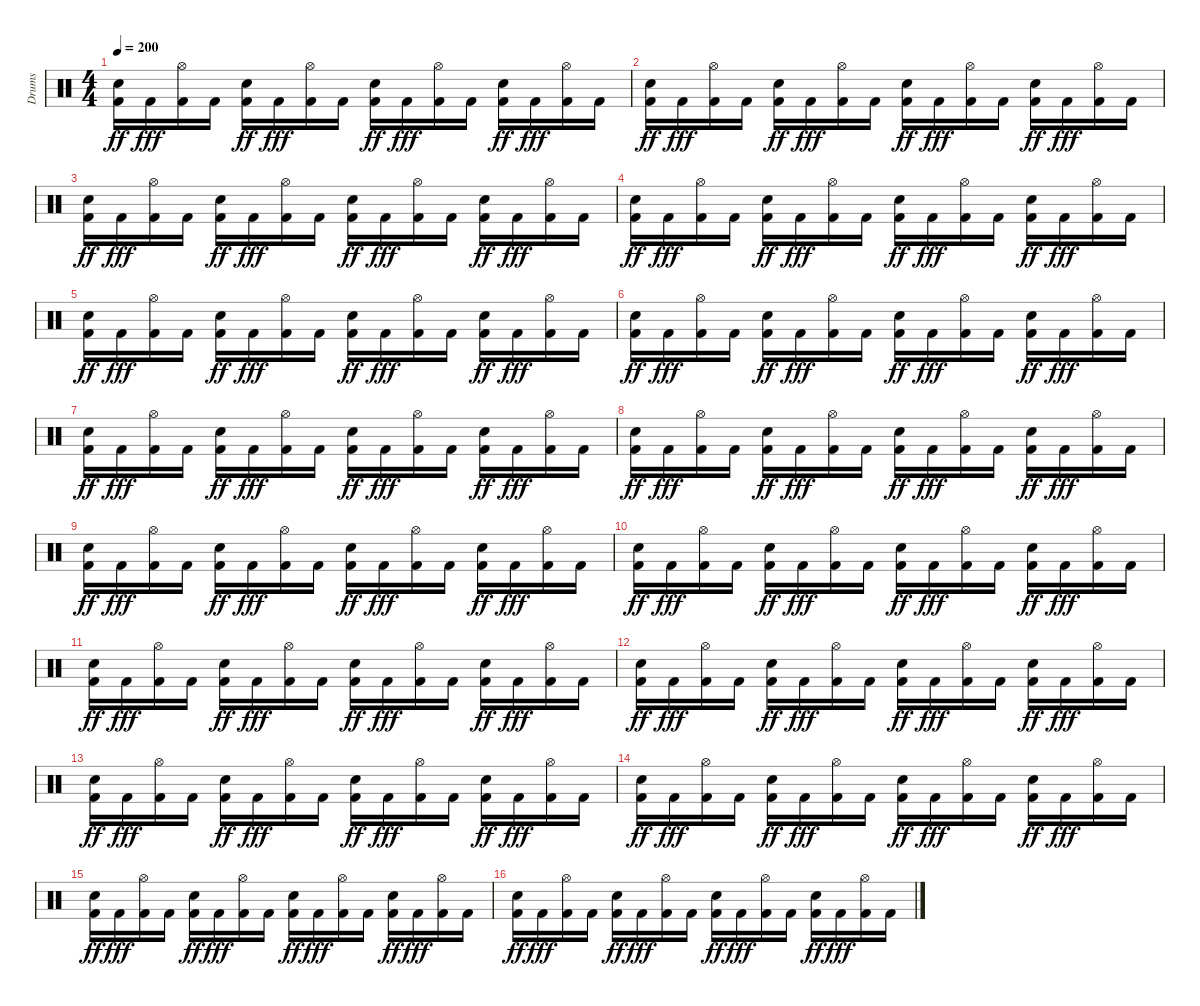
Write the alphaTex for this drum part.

\track ("Drums" "Drums") {instrument percussion}
\staff {score}
\articulation defaults
\ts (4 4)
\tempo 200
\clef neutral
\ks c
("Kick (hit) 2" "Electric Snare (hit)").16{dy ff} "Kick (hit) 2".16{dy fff} ("Kick (hit) 2" "Hi-Hat (open)").16 "Kick (hit) 2".16 ("Kick (hit) 2" "Electric Snare (hit)").16{dy ff} "Kick (hit) 2".16{dy fff} ("Kick (hit) 2" "Hi-Hat (open)").16 "Kick (hit) 2".16 ("Kick (hit) 2" "Electric Snare (hit)").16{dy ff} "Kick (hit) 2".16{dy fff} ("Kick (hit) 2" "Hi-Hat (open)").16 "Kick (hit) 2".16 ("Kick (hit) 2" "Electric Snare (hit)").16{dy ff} "Kick (hit) 2".16{dy fff} ("Kick (hit) 2" "Hi-Hat (open)").16 "Kick (hit) 2".16 |
("Kick (hit) 2" "Electric Snare (hit)").16{dy ff} "Kick (hit) 2".16{dy fff} ("Kick (hit) 2" "Hi-Hat (open)").16 "Kick (hit) 2".16 ("Kick (hit) 2" "Electric Snare (hit)").16{dy ff} "Kick (hit) 2".16{dy fff} ("Kick (hit) 2" "Hi-Hat (open)").16 "Kick (hit) 2".16 ("Kick (hit) 2" "Electric Snare (hit)").16{dy ff} "Kick (hit) 2".16{dy fff} ("Kick (hit) 2" "Hi-Hat (open)").16 "Kick (hit) 2".16 ("Kick (hit) 2" "Electric Snare (hit)").16{dy ff} "Kick (hit) 2".16{dy fff} ("Kick (hit) 2" "Hi-Hat (open)").16 "Kick (hit) 2".16 |
("Kick (hit) 2" "Electric Snare (hit)").16{dy ff} "Kick (hit) 2".16{dy fff} ("Kick (hit) 2" "Hi-Hat (open)").16 "Kick (hit) 2".16 ("Kick (hit) 2" "Electric Snare (hit)").16{dy ff} "Kick (hit) 2".16{dy fff} ("Kick (hit) 2" "Hi-Hat (open)").16 "Kick (hit) 2".16 ("Kick (hit) 2" "Electric Snare (hit)").16{dy ff} "Kick (hit) 2".16{dy fff} ("Kick (hit) 2" "Hi-Hat (open)").16 "Kick (hit) 2".16 ("Kick (hit) 2" "Electric Snare (hit)").16{dy ff} "Kick (hit) 2".16{dy fff} ("Kick (hit) 2" "Hi-Hat (open)").16 "Kick (hit) 2".16 |
("Kick (hit) 2" "Electric Snare (hit)").16{dy ff} "Kick (hit) 2".16{dy fff} ("Kick (hit) 2" "Hi-Hat (open)").16 "Kick (hit) 2".16 ("Kick (hit) 2" "Electric Snare (hit)").16{dy ff} "Kick (hit) 2".16{dy fff} ("Kick (hit) 2" "Hi-Hat (open)").16 "Kick (hit) 2".16 ("Kick (hit) 2" "Electric Snare (hit)").16{dy ff} "Kick (hit) 2".16{dy fff} ("Kick (hit) 2" "Hi-Hat (open)").16 "Kick (hit) 2".16 ("Kick (hit) 2" "Electric Snare (hit)").16{dy ff} "Kick (hit) 2".16{dy fff} ("Kick (hit) 2" "Hi-Hat (open)").16 "Kick (hit) 2".16 |
("Kick (hit) 2" "Electric Snare (hit)").16{dy ff} "Kick (hit) 2".16{dy fff} ("Kick (hit) 2" "Hi-Hat (open)").16 "Kick (hit) 2".16 ("Kick (hit) 2" "Electric Snare (hit)").16{dy ff} "Kick (hit) 2".16{dy fff} ("Kick (hit) 2" "Hi-Hat (open)").16 "Kick (hit) 2".16 ("Kick (hit) 2" "Electric Snare (hit)").16{dy ff} "Kick (hit) 2".16{dy fff} ("Kick (hit) 2" "Hi-Hat (open)").16 "Kick (hit) 2".16 ("Kick (hit) 2" "Electric Snare (hit)").16{dy ff} "Kick (hit) 2".16{dy fff} ("Kick (hit) 2" "Hi-Hat (open)").16 "Kick (hit) 2".16 |
("Kick (hit) 2" "Electric Snare (hit)").16{dy ff} "Kick (hit) 2".16{dy fff} ("Kick (hit) 2" "Hi-Hat (open)").16 "Kick (hit) 2".16 ("Kick (hit) 2" "Electric Snare (hit)").16{dy ff} "Kick (hit) 2".16{dy fff} ("Kick (hit) 2" "Hi-Hat (open)").16 "Kick (hit) 2".16 ("Kick (hit) 2" "Electric Snare (hit)").16{dy ff} "Kick (hit) 2".16{dy fff} ("Kick (hit) 2" "Hi-Hat (open)").16 "Kick (hit) 2".16 ("Kick (hit) 2" "Electric Snare (hit)").16{dy ff} "Kick (hit) 2".16{dy fff} ("Kick (hit) 2" "Hi-Hat (open)").16 "Kick (hit) 2".16 |
("Kick (hit) 2" "Electric Snare (hit)").16{dy ff} "Kick (hit) 2".16{dy fff} ("Kick (hit) 2" "Hi-Hat (open)").16 "Kick (hit) 2".16 ("Kick (hit) 2" "Electric Snare (hit)").16{dy ff} "Kick (hit) 2".16{dy fff} ("Kick (hit) 2" "Hi-Hat (open)").16 "Kick (hit) 2".16 ("Kick (hit) 2" "Electric Snare (hit)").16{dy ff} "Kick (hit) 2".16{dy fff} ("Kick (hit) 2" "Hi-Hat (open)").16 "Kick (hit) 2".16 ("Kick (hit) 2" "Electric Snare (hit)").16{dy ff} "Kick (hit) 2".16{dy fff} ("Kick (hit) 2" "Hi-Hat (open)").16 "Kick (hit) 2".16 |
("Kick (hit) 2" "Electric Snare (hit)").16{dy ff} "Kick (hit) 2".16{dy fff} ("Kick (hit) 2" "Hi-Hat (open)").16 "Kick (hit) 2".16 ("Kick (hit) 2" "Electric Snare (hit)").16{dy ff} "Kick (hit) 2".16{dy fff} ("Kick (hit) 2" "Hi-Hat (open)").16 "Kick (hit) 2".16 ("Kick (hit) 2" "Electric Snare (hit)").16{dy ff} "Kick (hit) 2".16{dy fff} ("Kick (hit) 2" "Hi-Hat (open)").16 "Kick (hit) 2".16 ("Kick (hit) 2" "Electric Snare (hit)").16{dy ff} "Kick (hit) 2".16{dy fff} ("Kick (hit) 2" "Hi-Hat (open)").16 "Kick (hit) 2".16 |
("Kick (hit) 2" "Electric Snare (hit)").16{dy ff} "Kick (hit) 2".16{dy fff} ("Kick (hit) 2" "Hi-Hat (open)").16 "Kick (hit) 2".16 ("Kick (hit) 2" "Electric Snare (hit)").16{dy ff} "Kick (hit) 2".16{dy fff} ("Kick (hit) 2" "Hi-Hat (open)").16 "Kick (hit) 2".16 ("Kick (hit) 2" "Electric Snare (hit)").16{dy ff} "Kick (hit) 2".16{dy fff} ("Kick (hit) 2" "Hi-Hat (open)").16 "Kick (hit) 2".16 ("Kick (hit) 2" "Electric Snare (hit)").16{dy ff} "Kick (hit) 2".16{dy fff} ("Kick (hit) 2" "Hi-Hat (open)").16 "Kick (hit) 2".16 |
("Kick (hit) 2" "Electric Snare (hit)").16{dy ff} "Kick (hit) 2".16{dy fff} ("Kick (hit) 2" "Hi-Hat (open)").16 "Kick (hit) 2".16 ("Kick (hit) 2" "Electric Snare (hit)").16{dy ff} "Kick (hit) 2".16{dy fff} ("Kick (hit) 2" "Hi-Hat (open)").16 "Kick (hit) 2".16 ("Kick (hit) 2" "Electric Snare (hit)").16{dy ff} "Kick (hit) 2".16{dy fff} ("Kick (hit) 2" "Hi-Hat (open)").16 "Kick (hit) 2".16 ("Kick (hit) 2" "Electric Snare (hit)").16{dy ff} "Kick (hit) 2".16{dy fff} ("Kick (hit) 2" "Hi-Hat (open)").16 "Kick (hit) 2".16 |
("Kick (hit) 2" "Electric Snare (hit)").16{dy ff} "Kick (hit) 2".16{dy fff} ("Kick (hit) 2" "Hi-Hat (open)").16 "Kick (hit) 2".16 ("Kick (hit) 2" "Electric Snare (hit)").16{dy ff} "Kick (hit) 2".16{dy fff} ("Kick (hit) 2" "Hi-Hat (open)").16 "Kick (hit) 2".16 ("Kick (hit) 2" "Electric Snare (hit)").16{dy ff} "Kick (hit) 2".16{dy fff} ("Kick (hit) 2" "Hi-Hat (open)").16 "Kick (hit) 2".16 ("Kick (hit) 2" "Electric Snare (hit)").16{dy ff} "Kick (hit) 2".16{dy fff} ("Kick (hit) 2" "Hi-Hat (open)").16 "Kick (hit) 2".16 |
("Kick (hit) 2" "Electric Snare (hit)").16{dy ff} "Kick (hit) 2".16{dy fff} ("Kick (hit) 2" "Hi-Hat (open)").16 "Kick (hit) 2".16 ("Kick (hit) 2" "Electric Snare (hit)").16{dy ff} "Kick (hit) 2".16{dy fff} ("Kick (hit) 2" "Hi-Hat (open)").16 "Kick (hit) 2".16 ("Kick (hit) 2" "Electric Snare (hit)").16{dy ff} "Kick (hit) 2".16{dy fff} ("Kick (hit) 2" "Hi-Hat (open)").16 "Kick (hit) 2".16 ("Kick (hit) 2" "Electric Snare (hit)").16{dy ff} "Kick (hit) 2".16{dy fff} ("Kick (hit) 2" "Hi-Hat (open)").16 "Kick (hit) 2".16 |
("Kick (hit) 2" "Electric Snare (hit)").16{dy ff} "Kick (hit) 2".16{dy fff} ("Kick (hit) 2" "Hi-Hat (open)").16 "Kick (hit) 2".16 ("Kick (hit) 2" "Electric Snare (hit)").16{dy ff} "Kick (hit) 2".16{dy fff} ("Kick (hit) 2" "Hi-Hat (open)").16 "Kick (hit) 2".16 ("Kick (hit) 2" "Electric Snare (hit)").16{dy ff} "Kick (hit) 2".16{dy fff} ("Kick (hit) 2" "Hi-Hat (open)").16 "Kick (hit) 2".16 ("Kick (hit) 2" "Electric Snare (hit)").16{dy ff} "Kick (hit) 2".16{dy fff} ("Kick (hit) 2" "Hi-Hat (open)").16 "Kick (hit) 2".16 |
("Kick (hit) 2" "Electric Snare (hit)").16{dy ff} "Kick (hit) 2".16{dy fff} ("Kick (hit) 2" "Hi-Hat (open)").16 "Kick (hit) 2".16 ("Kick (hit) 2" "Electric Snare (hit)").16{dy ff} "Kick (hit) 2".16{dy fff} ("Kick (hit) 2" "Hi-Hat (open)").16 "Kick (hit) 2".16 ("Kick (hit) 2" "Electric Snare (hit)").16{dy ff} "Kick (hit) 2".16{dy fff} ("Kick (hit) 2" "Hi-Hat (open)").16 "Kick (hit) 2".16 ("Kick (hit) 2" "Electric Snare (hit)").16{dy ff} "Kick (hit) 2".16{dy fff} ("Kick (hit) 2" "Hi-Hat (open)").16 "Kick (hit) 2".16 |
("Kick (hit) 2" "Electric Snare (hit)").16{dy ff} "Kick (hit) 2".16{dy fff} ("Kick (hit) 2" "Hi-Hat (open)").16 "Kick (hit) 2".16 ("Kick (hit) 2" "Electric Snare (hit)").16{dy ff} "Kick (hit) 2".16{dy fff} ("Kick (hit) 2" "Hi-Hat (open)").16 "Kick (hit) 2".16 ("Kick (hit) 2" "Electric Snare (hit)").16{dy ff} "Kick (hit) 2".16{dy fff} ("Kick (hit) 2" "Hi-Hat (open)").16 "Kick (hit) 2".16 ("Kick (hit) 2" "Electric Snare (hit)").16{dy ff} "Kick (hit) 2".16{dy fff} ("Kick (hit) 2" "Hi-Hat (open)").16 "Kick (hit) 2".16 |
("Kick (hit) 2" "Electric Snare (hit)").16{dy ff} "Kick (hit) 2".16{dy fff} ("Kick (hit) 2" "Hi-Hat (open)").16 "Kick (hit) 2".16 ("Kick (hit) 2" "Electric Snare (hit)").16{dy ff} "Kick (hit) 2".16{dy fff} ("Kick (hit) 2" "Hi-Hat (open)").16 "Kick (hit) 2".16 ("Kick (hit) 2" "Electric Snare (hit)").16{dy ff} "Kick (hit) 2".16{dy fff} ("Kick (hit) 2" "Hi-Hat (open)").16 "Kick (hit) 2".16 ("Kick (hit) 2" "Electric Snare (hit)").16{dy ff} "Kick (hit) 2".16{dy fff} ("Kick (hit) 2" "Hi-Hat (open)").16 "Kick (hit) 2".16
